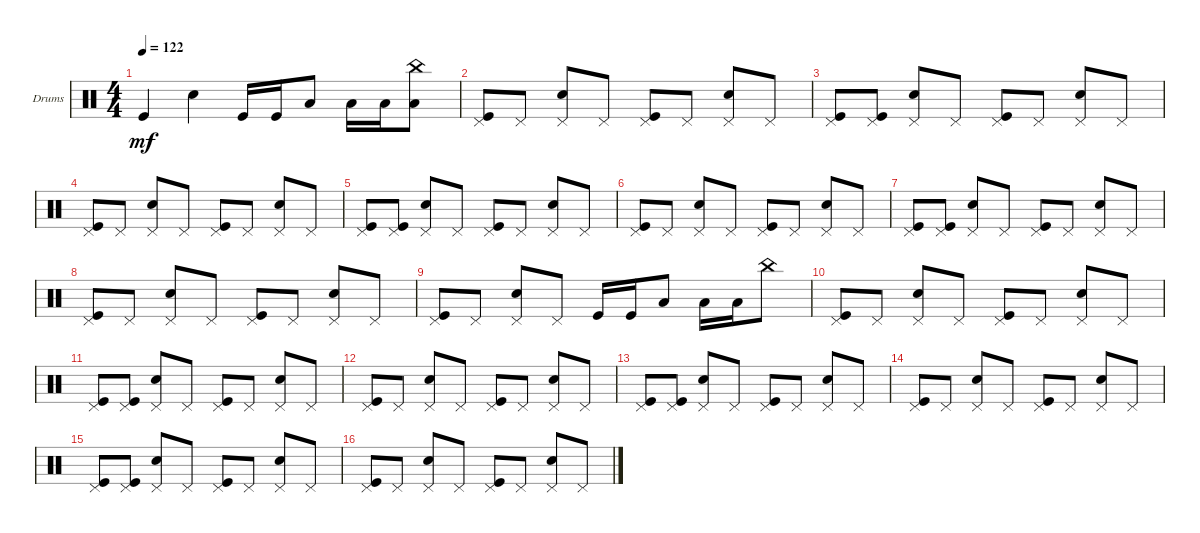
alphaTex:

\defaultSystemsLayout 4
\bracketExtendMode groupsimilarinstruments
\firstSystemTrackNameOrientation horizontal
\otherSystemsTrackNameOrientation horizontal
\track ("Drums" "Drums") {instrument percussion}
\staff {score}
\articulation defaults
\ts (4 4)
\tempo 122
\clef neutral
\scale
0.333333
\ks c "Kick (hit)".4{dy mf} "Snare (hit) 2".4 "Kick (hit)".16 "Kick (hit)".16 "Low Tom (hit)".8 "Low Tom (hit)".16 "Low Tom (hit)".16
("Low Tom (hit)" "China (hit)").8 |
\scale
0.333333 ("Pedal Hi-Hat (hit)" "Kick (hit)").8 "Pedal Hi-Hat (hit)".8 ("Pedal Hi-Hat (hit)" "Snare (hit) 2").8 "Pedal Hi-Hat (hit)".8 ("Pedal Hi-Hat (hit)" "Kick (hit)").8 "Pedal Hi-Hat (hit)".8 ("Pedal Hi-Hat (hit)" "Snare (hit) 2").8 "Pedal Hi-Hat (hit)".8 |
\scale
0.333333 ("Pedal Hi-Hat (hit)" "Kick (hit)").8 ("Pedal Hi-Hat (hit)" "Kick (hit)").8 ("Pedal Hi-Hat (hit)" "Snare (hit) 2").8 "Pedal Hi-Hat (hit)".8 ("Pedal Hi-Hat (hit)" "Kick (hit)").8 "Pedal Hi-Hat (hit)".8 ("Pedal Hi-Hat (hit)" "Snare (hit) 2").8 "Pedal Hi-Hat (hit)".8 |
\scale
0.333333 ("Pedal Hi-Hat (hit)" "Kick (hit)").8 "Pedal Hi-Hat (hit)".8 ("Pedal Hi-Hat (hit)" "Snare (hit) 2").8 "Pedal Hi-Hat (hit)".8 ("Pedal Hi-Hat (hit)" "Kick (hit)").8 "Pedal Hi-Hat (hit)".8 ("Pedal Hi-Hat (hit)" "Snare (hit) 2").8 "Pedal Hi-Hat (hit)".8 |
\scale
0.333333 ("Pedal Hi-Hat (hit)" "Kick (hit)").8 ("Pedal Hi-Hat (hit)" "Kick (hit)").8 ("Pedal Hi-Hat (hit)" "Snare (hit) 2").8 "Pedal Hi-Hat (hit)".8 ("Pedal Hi-Hat (hit)" "Kick (hit)").8 "Pedal Hi-Hat (hit)".8 ("Pedal Hi-Hat (hit)" "Snare (hit) 2").8 "Pedal Hi-Hat (hit)".8 |
\scale
0.333333 ("Pedal Hi-Hat (hit)" "Kick (hit)").8 "Pedal Hi-Hat (hit)".8 ("Pedal Hi-Hat (hit)" "Snare (hit) 2").8 "Pedal Hi-Hat (hit)".8 ("Pedal Hi-Hat (hit)" "Kick (hit)").8 "Pedal Hi-Hat (hit)".8 ("Pedal Hi-Hat (hit)" "Snare (hit) 2").8 "Pedal Hi-Hat (hit)".8 |
\scale
0.333333 ("Pedal Hi-Hat (hit)" "Kick (hit)").8 ("Pedal Hi-Hat (hit)" "Kick (hit)").8 ("Pedal Hi-Hat (hit)" "Snare (hit) 2").8 "Pedal Hi-Hat (hit)".8 ("Pedal Hi-Hat (hit)" "Kick (hit)").8 "Pedal Hi-Hat (hit)".8 ("Pedal Hi-Hat (hit)" "Snare (hit) 2").8 "Pedal Hi-Hat (hit)".8 |
\scale
0.333333 ("Pedal Hi-Hat (hit)" "Kick (hit)").8 "Pedal Hi-Hat (hit)".8 ("Pedal Hi-Hat (hit)" "Snare (hit) 2").8 "Pedal Hi-Hat (hit)".8 ("Pedal Hi-Hat (hit)" "Kick (hit)").8 "Pedal Hi-Hat (hit)".8 ("Pedal Hi-Hat (hit)" "Snare (hit) 2").8 "Pedal Hi-Hat (hit)".8 |
\scale
0.333333 ("Pedal Hi-Hat (hit)" "Kick (hit)").8 "Pedal Hi-Hat (hit)".8 ("Pedal Hi-Hat (hit)" "Snare (hit) 2").8 "Pedal Hi-Hat (hit)".8 "Kick (hit)".16 "Kick (hit)".16 "Low Tom (hit)".8 "Low Tom (hit)".16 "Low Tom (hit)".16 "China (hit)".8 |
\scale
0.333333 ("Pedal Hi-Hat (hit)" "Kick (hit)").8 "Pedal Hi-Hat (hit)".8 ("Pedal Hi-Hat (hit)" "Snare (hit) 2").8 "Pedal Hi-Hat (hit)".8 ("Pedal Hi-Hat (hit)" "Kick (hit)").8 "Pedal Hi-Hat (hit)".8 ("Pedal Hi-Hat (hit)" "Snare (hit) 2").8 "Pedal Hi-Hat (hit)".8 |
\scale
0.333333 ("Pedal Hi-Hat (hit)" "Kick (hit)").8 ("Pedal Hi-Hat (hit)" "Kick (hit)").8 ("Pedal Hi-Hat (hit)" "Snare (hit) 2").8 "Pedal Hi-Hat (hit)".8 ("Pedal Hi-Hat (hit)" "Kick (hit)").8 "Pedal Hi-Hat (hit)".8 ("Pedal Hi-Hat (hit)" "Snare (hit) 2").8 "Pedal Hi-Hat (hit)".8 |
\scale
0.333333 ("Pedal Hi-Hat (hit)" "Kick (hit)").8 "Pedal Hi-Hat (hit)".8 ("Pedal Hi-Hat (hit)" "Snare (hit) 2").8 "Pedal Hi-Hat (hit)".8 ("Pedal Hi-Hat (hit)" "Kick (hit)").8 "Pedal Hi-Hat (hit)".8 ("Pedal Hi-Hat (hit)" "Snare (hit) 2").8 "Pedal Hi-Hat (hit)".8 |
\scale
0.333333 ("Pedal Hi-Hat (hit)" "Kick (hit)").8 ("Pedal Hi-Hat (hit)" "Kick (hit)").8 ("Pedal Hi-Hat (hit)" "Snare (hit) 2").8 "Pedal Hi-Hat (hit)".8 ("Pedal Hi-Hat (hit)" "Kick (hit)").8 "Pedal Hi-Hat (hit)".8 ("Pedal Hi-Hat (hit)" "Snare (hit) 2").8 "Pedal Hi-Hat (hit)".8 |
\scale
0.333333 ("Pedal Hi-Hat (hit)" "Kick (hit)").8 "Pedal Hi-Hat (hit)".8 ("Pedal Hi-Hat (hit)" "Snare (hit) 2").8 "Pedal Hi-Hat (hit)".8 ("Pedal Hi-Hat (hit)" "Kick (hit)").8 "Pedal Hi-Hat (hit)".8 ("Pedal Hi-Hat (hit)" "Snare (hit) 2").8 "Pedal Hi-Hat (hit)".8 |
\scale
0.333333 ("Pedal Hi-Hat (hit)" "Kick (hit)").8 ("Pedal Hi-Hat (hit)" "Kick (hit)").8 ("Pedal Hi-Hat (hit)" "Snare (hit) 2").8 "Pedal Hi-Hat (hit)".8 ("Pedal Hi-Hat (hit)" "Kick (hit)").8 "Pedal Hi-Hat (hit)".8 ("Pedal Hi-Hat (hit)" "Snare (hit) 2").8 "Pedal Hi-Hat (hit)".8 |
\scale
0.333333 ("Pedal Hi-Hat (hit)" "Kick (hit)").8 "Pedal Hi-Hat (hit)".8 ("Pedal Hi-Hat (hit)" "Snare (hit) 2").8 "Pedal Hi-Hat (hit)".8 ("Pedal Hi-Hat (hit)" "Kick (hit)").8 "Pedal Hi-Hat (hit)".8 ("Pedal Hi-Hat (hit)" "Snare (hit) 2").8 "Pedal Hi-Hat (hit)".8
